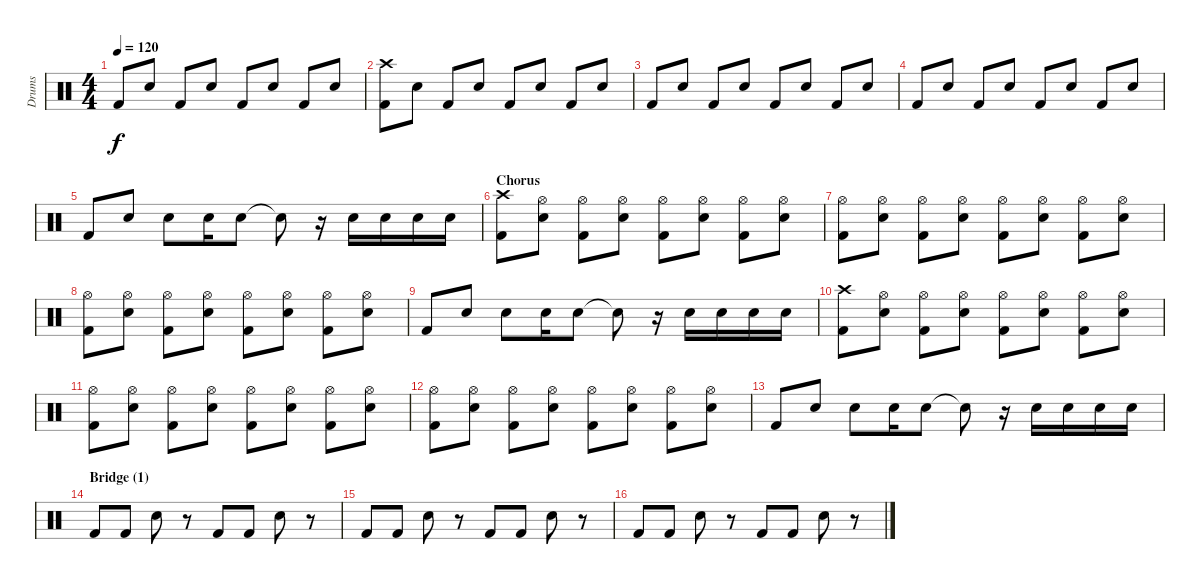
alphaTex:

\track ("Drums" "Drums") {instrument percussion}
\staff {score}
\articulation defaults
\ts (4 4)
\tempo 120
\clef neutral
\ks c "Kick (hit) 2".8{dy f} "Snare (hit) 2".8 "Kick (hit) 2".8 "Snare (hit) 2".8 "Kick (hit) 2".8 "Snare (hit) 2".8 "Kick (hit) 2".8 "Snare (hit) 2".8
|
("Crash high (hit)" "Kick (hit) 2").8 "Snare (hit) 2".8 "Kick (hit) 2".8 "Snare (hit) 2".8 "Kick (hit) 2".8 "Snare (hit) 2".8 "Kick (hit) 2".8 "Snare (hit) 2".8 |
"Kick (hit) 2".8 "Snare (hit) 2".8 "Kick (hit) 2".8 "Snare (hit) 2".8 "Kick (hit) 2".8 "Snare (hit) 2".8 "Kick (hit) 2".8 "Snare (hit) 2".8 |
"Kick (hit) 2".8 "Snare (hit) 2".8 "Kick (hit) 2".8 "Snare (hit) 2".8 "Kick (hit) 2".8 "Snare (hit) 2".8 "Kick (hit) 2".8 "Snare (hit) 2".8 |
"Kick (hit) 2".8 "Snare (hit) 2".8 "Snare (hit) 2".8 "Snare (hit) 2".16 "Snare (hit) 2".8 "Snare (hit)"{t}.8 r.16 "Snare (hit) 2".16 "Snare (hit) 2".16 "Snare (hit) 2".16 "Snare (hit) 2".16 |
\section ("" "Chorus")
("Crash high (hit)" "Kick (hit) 2").8 ("Hi-Hat (open)" "Snare (hit) 2").8 ("Hi-Hat (open)" "Kick (hit) 2").8 ("Hi-Hat (open)" "Snare (hit) 2").8 ("Hi-Hat (open)" "Kick (hit) 2").8 ("Hi-Hat (open)" "Snare (hit) 2").8 ("Hi-Hat (open)" "Kick (hit) 2").8 ("Hi-Hat (open)" "Snare (hit) 2").8 |
("Hi-Hat (open)" "Kick (hit) 2").8 ("Hi-Hat (open)" "Snare (hit) 2").8 ("Hi-Hat (open)" "Kick (hit) 2").8 ("Hi-Hat (open)" "Snare (hit) 2").8 ("Hi-Hat (open)" "Kick (hit) 2").8 ("Hi-Hat (open)" "Snare (hit) 2").8 ("Hi-Hat (open)" "Kick (hit) 2").8 ("Hi-Hat (open)" "Snare (hit) 2").8 |
("Hi-Hat (open)" "Kick (hit) 2").8 ("Hi-Hat (open)" "Snare (hit) 2").8 ("Hi-Hat (open)" "Kick (hit) 2").8 ("Hi-Hat (open)" "Snare (hit) 2").8 ("Hi-Hat (open)" "Kick (hit) 2").8 ("Hi-Hat (open)" "Snare (hit) 2").8 ("Hi-Hat (open)" "Kick (hit) 2").8 ("Hi-Hat (open)" "Snare (hit) 2").8 |
"Kick (hit) 2".8 "Snare (hit) 2".8 "Snare (hit) 2".8 "Snare (hit) 2".16 "Snare (hit) 2".8 "Snare (hit)"{t}.8 r.16 "Snare (hit) 2".16 "Snare (hit) 2".16 "Snare (hit) 2".16 "Snare (hit) 2".16 |
("Crash high (hit)" "Kick (hit) 2").8 ("Hi-Hat (open)" "Snare (hit) 2").8 ("Hi-Hat (open)" "Kick (hit) 2").8 ("Hi-Hat (open)" "Snare (hit) 2").8 ("Hi-Hat (open)" "Kick (hit) 2").8 ("Hi-Hat (open)" "Snare (hit) 2").8 ("Hi-Hat (open)" "Kick (hit) 2").8 ("Hi-Hat (open)" "Snare (hit) 2").8 |
("Hi-Hat (open)" "Kick (hit) 2").8 ("Hi-Hat (open)" "Snare (hit) 2").8 ("Hi-Hat (open)" "Kick (hit) 2").8 ("Hi-Hat (open)" "Snare (hit) 2").8 ("Hi-Hat (open)" "Kick (hit) 2").8 ("Hi-Hat (open)" "Snare (hit) 2").8 ("Hi-Hat (open)" "Kick (hit) 2").8 ("Hi-Hat (open)" "Snare (hit) 2").8 |
("Hi-Hat (open)" "Kick (hit) 2").8 ("Hi-Hat (open)" "Snare (hit) 2").8 ("Hi-Hat (open)" "Kick (hit) 2").8 ("Hi-Hat (open)" "Snare (hit) 2").8 ("Hi-Hat (open)" "Kick (hit) 2").8 ("Hi-Hat (open)" "Snare (hit) 2").8 ("Hi-Hat (open)" "Kick (hit) 2").8 ("Hi-Hat (open)" "Snare (hit) 2").8 |
"Kick (hit) 2".8 "Snare (hit) 2".8 "Snare (hit) 2".8 "Snare (hit) 2".16 "Snare (hit) 2".8 "Snare (hit)"{t}.8 r.16 "Snare (hit) 2".16 "Snare (hit) 2".16 "Snare (hit) 2".16 "Snare (hit) 2".16 |
\section ("" "Bridge (1)")
"Kick (hit) 2".8 "Kick (hit) 2".8 "Snare (hit) 2".8 r.8 "Kick (hit) 2".8 "Kick (hit) 2".8 "Snare (hit) 2".8 r.8 |
"Kick (hit) 2".8 "Kick (hit) 2".8 "Snare (hit) 2".8 r.8 "Kick (hit) 2".8 "Kick (hit) 2".8 "Snare (hit) 2".8 r.8 |
"Kick (hit) 2".8 "Kick (hit) 2".8 "Snare (hit) 2".8 r.8 "Kick (hit) 2".8 "Kick (hit) 2".8 "Snare (hit) 2".8 r.8
